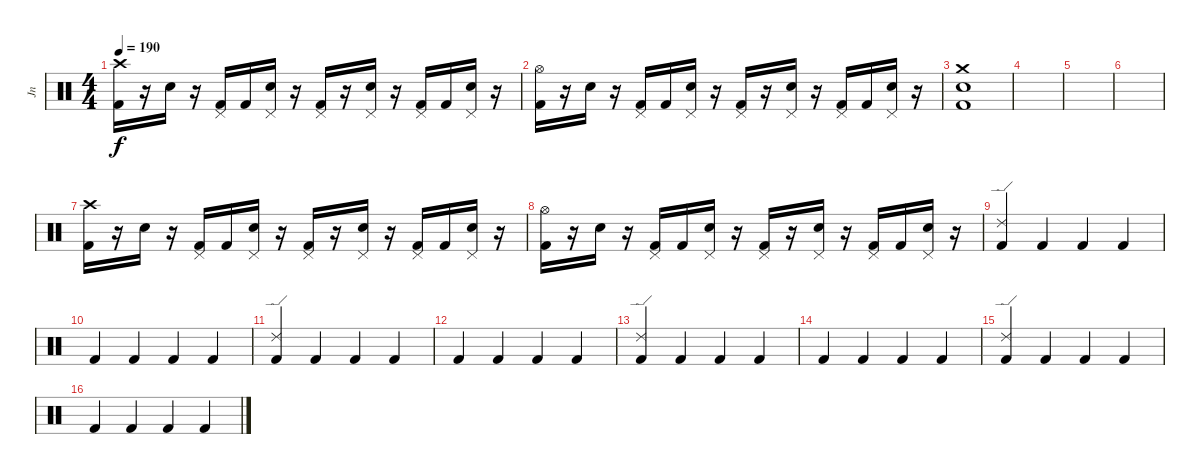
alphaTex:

\track ("Jn" "Jn") {instrument percussion}
\staff {score}
\articulation defaults
\ts (4 4)
\tempo 190
\clef neutral
\ks c
("Crash high (hit)" "Kick (hit) 2").16{dy f} r.16 "Electric Snare (hit)".16 r.16 ("Pedal Hi-Hat (hit)" "Kick (hit) 2").16 "Kick (hit) 2".16 ("Pedal Hi-Hat (hit)" "Electric Snare (hit)").16 r.16 ("Pedal Hi-Hat (hit)" "Kick (hit) 2").16 r.16 ("Pedal Hi-Hat (hit)" "Electric Snare (hit)").16 r.16 ("Pedal Hi-Hat (hit)" "Kick (hit) 2").16 "Kick (hit) 2".16 ("Pedal Hi-Hat (hit)" "Electric Snare (hit)").16 r.16 |
("Hi-Hat (open)" "Kick (hit) 2").16 r.16 "Electric Snare (hit)".16 r.16 ("Pedal Hi-Hat (hit)" "Kick (hit) 2").16 "Kick (hit) 2".16 ("Pedal Hi-Hat (hit)" "Electric Snare (hit)").16 r.16 ("Pedal Hi-Hat (hit)" "Kick (hit) 2").16 r.16 ("Pedal Hi-Hat (hit)" "Electric Snare (hit)").16 r.16 ("Pedal Hi-Hat (hit)" "Kick (hit) 2").16 "Kick (hit) 2".16 ("Pedal Hi-Hat (hit)" "Electric Snare (hit)").16 r.16 |
("Crash medium (hit)" "Electric Snare (hit)" "Kick (hit) 2").1 |
|
|
|
("Crash high (hit)" "Kick (hit) 2").16 r.16 "Electric Snare (hit)".16 r.16 ("Pedal Hi-Hat (hit)" "Kick (hit) 2").16 "Kick (hit) 2".16 ("Pedal Hi-Hat (hit)" "Electric Snare (hit)").16 r.16 ("Pedal Hi-Hat (hit)" "Kick (hit) 2").16 r.16 ("Pedal Hi-Hat (hit)" "Electric Snare (hit)").16 r.16 ("Pedal Hi-Hat (hit)" "Kick (hit) 2").16 "Kick (hit) 2".16 ("Pedal Hi-Hat (hit)" "Electric Snare (hit)").16 r.16 |
("Hi-Hat (open)" "Kick (hit) 2").16 r.16 "Electric Snare (hit)".16 r.16 ("Pedal Hi-Hat (hit)" "Kick (hit) 2").16 "Kick (hit) 2".16 ("Pedal Hi-Hat (hit)" "Electric Snare (hit)").16 r.16 ("Pedal Hi-Hat (hit)" "Kick (hit) 2").16 r.16 ("Pedal Hi-Hat (hit)" "Electric Snare (hit)").16 r.16 ("Pedal Hi-Hat (hit)" "Kick (hit) 2").16 "Kick (hit) 2".16 ("Pedal Hi-Hat (hit)" "Electric Snare (hit)").16 r.16 |
("Ride (edge) 2" "Kick (hit) 2").4 "Kick (hit) 2".4 "Kick (hit) 2".4 "Kick (hit) 2".4 |
"Kick (hit) 2".4 "Kick (hit) 2".4 "Kick (hit) 2".4 "Kick (hit) 2".4 |
("Ride (edge) 2" "Kick (hit) 2").4 "Kick (hit) 2".4 "Kick (hit) 2".4 "Kick (hit) 2".4 |
"Kick (hit) 2".4 "Kick (hit) 2".4 "Kick (hit) 2".4 "Kick (hit) 2".4 |
("Ride (edge) 2" "Kick (hit) 2").4 "Kick (hit) 2".4 "Kick (hit) 2".4 "Kick (hit) 2".4 |
"Kick (hit) 2".4 "Kick (hit) 2".4 "Kick (hit) 2".4 "Kick (hit) 2".4 |
("Ride (edge) 2" "Kick (hit) 2").4 "Kick (hit) 2".4 "Kick (hit) 2".4 "Kick (hit) 2".4 |
"Kick (hit) 2".4 "Kick (hit) 2".4 "Kick (hit) 2".4 "Kick (hit) 2".4
